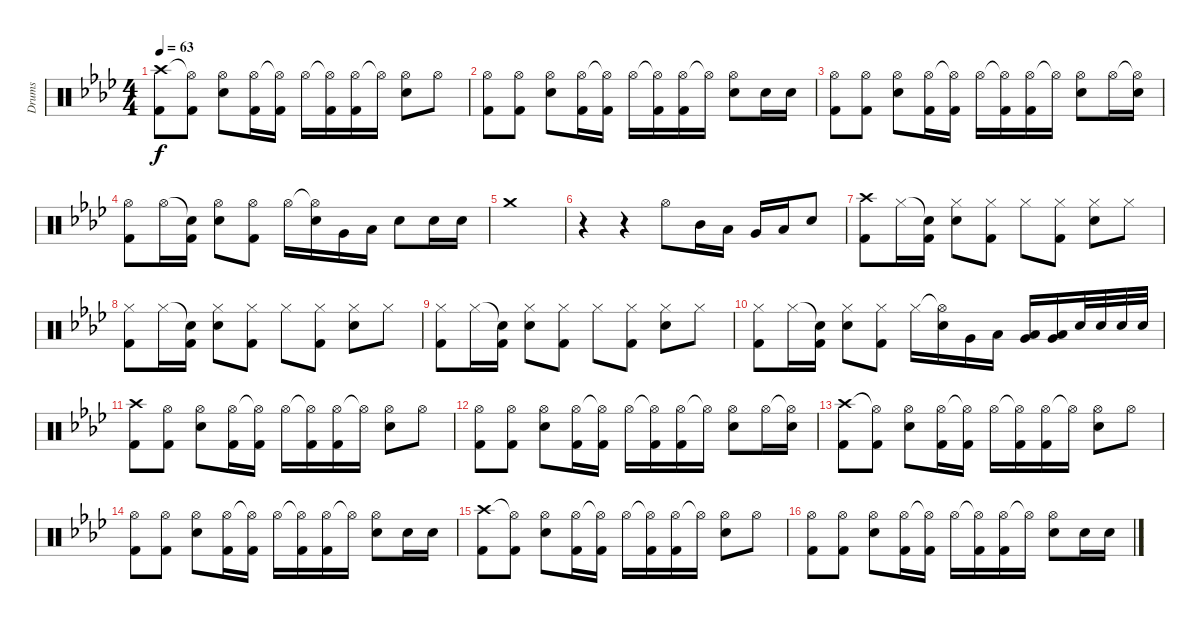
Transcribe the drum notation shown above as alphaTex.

\track ("Drums" "Drums") {instrument percussion}
\staff {score}
\articulation defaults
\ts (4 4)
\tempo 63
\clef neutral
\ks ab
("Crash high (hit)" "Kick (hit) 2").8{dy f} ("Hi-Hat (open)"{t} "Kick (hit) 2").8 ("Hi-Hat (open)" "Electric Snare (hit)").8 ("Hi-Hat (open)" "Kick (hit) 2").16 ("Hi-Hat (open)"{t} "Kick (hit) 2").16 "Hi-Hat (open)".16 ("Hi-Hat (open)"{t} "Kick (hit) 2").16 ("Hi-Hat (open)" "Kick (hit) 2").16 "Hi-Hat (open)"{t}.16 ("Hi-Hat (open)" "Electric Snare (hit)").8 "Hi-Hat (open)".8 |
("Hi-Hat (open)" "Kick (hit) 2").8 ("Hi-Hat (open)" "Kick (hit) 2").8 ("Hi-Hat (open)" "Electric Snare (hit)").8 ("Hi-Hat (open)" "Kick (hit) 2").16 ("Hi-Hat (open)"{t} "Kick (hit) 2").16 "Hi-Hat (open)".16 ("Hi-Hat (open)"{t} "Kick (hit) 2").16 ("Hi-Hat (open)" "Kick (hit) 2").16 "Hi-Hat (open)"{t}.16 ("Hi-Hat (open)" "Electric Snare (hit)").8 "Electric Snare (hit)".16 "Electric Snare (hit)".16 |
("Hi-Hat (open)" "Kick (hit) 2").8 ("Hi-Hat (open)" "Kick (hit) 2").8 ("Hi-Hat (open)" "Electric Snare (hit)").8 ("Hi-Hat (open)" "Kick (hit) 2").16 ("Hi-Hat (open)"{t} "Kick (hit) 2").16 "Hi-Hat (open)".16 ("Hi-Hat (open)"{t} "Kick (hit) 2").16 ("Hi-Hat (open)" "Kick (hit) 2").16 "Hi-Hat (open)"{t}.16 ("Hi-Hat (open)" "Electric Snare (hit)").8 "Hi-Hat (open)".16 ("Hi-Hat (open)"{t} "Electric Snare (hit)").16 |
("Hi-Hat (open)" "Kick (hit) 2").8 "Hi-Hat (open)".16 ("Snare (hit)"{t} "Kick (hit) 2").16 ("Hi-Hat (open)" "Electric Snare (hit)").8 ("Hi-Hat (open)" "Kick (hit) 2").8 "Hi-Hat (open)".16 ("Hi-Hat (open)"{t} "Electric Snare (hit)").16 "Very Low Tom (hit)".16 "Low Floor Tom (hit)".16 "Electric Snare (hit)".8 "Electric Snare (hit)".16 "Electric Snare (hit)".16 |
"Crash medium (hit)".1 |
r.4 r.4 "Hi-Hat (open)".8 "Mid Tom (hit)".16 "Low Tom (hit)".16 "Very Low Tom (hit)".16 "Low Floor Tom (hit)".16 "Electric Snare (hit)".8 |
("Crash high (hit)" "Kick (hit) 2").8 "Hi-Hat (closed)".16 ("Snare (hit)"{t} "Kick (hit) 2").16 ("Hi-Hat (closed)" "Electric Snare (hit)").8 ("Hi-Hat (closed)" "Kick (hit) 2").8 "Hi-Hat (closed)".8 ("Hi-Hat (closed)" "Kick (hit) 2").8 ("Hi-Hat (closed)" "Electric Snare (hit)").8 "Hi-Hat (closed)".8 |
("Hi-Hat (closed)" "Kick (hit) 2").8 "Hi-Hat (closed)".16 ("Snare (hit)"{t} "Kick (hit) 2").16 ("Hi-Hat (closed)" "Electric Snare (hit)").8 ("Hi-Hat (closed)" "Kick (hit) 2").8 "Hi-Hat (closed)".8 ("Hi-Hat (closed)" "Kick (hit) 2").8 ("Hi-Hat (closed)" "Electric Snare (hit)").8 "Hi-Hat (closed)".8 |
("Hi-Hat (closed)" "Kick (hit) 2").8 "Hi-Hat (closed)".16 ("Snare (hit)"{t} "Kick (hit) 2").16 ("Hi-Hat (closed)" "Electric Snare (hit)").8 ("Hi-Hat (closed)" "Kick (hit) 2").8 "Hi-Hat (closed)".8 ("Hi-Hat (closed)" "Kick (hit) 2").8 ("Hi-Hat (closed)" "Electric Snare (hit)").8 "Hi-Hat (closed)".8 |
("Hi-Hat (closed)" "Kick (hit) 2").8 "Hi-Hat (closed)".16 ("Snare (hit)"{t} "Kick (hit) 2").16 ("Hi-Hat (closed)" "Electric Snare (hit)").8 ("Hi-Hat (closed)" "Kick (hit) 2").8 "Hi-Hat (closed)".16 ("Hi-Hat (open)"{t} "Electric Snare (hit)").16 "Very Low Tom (hit)".16 "Low Floor Tom (hit)".16 ("Low Floor Tom (hit)" "Very Low Tom (hit)").16 ("Low Floor Tom (hit)" "Very Low Tom (hit)").16 "Electric Snare (hit)".32 "Electric Snare (hit)".32 "Electric Snare (hit)".32 "Electric Snare (hit)".32 |
("Crash high (hit)" "Kick (hit) 2").8 ("Hi-Hat (open)" "Kick (hit) 2").8 ("Hi-Hat (open)" "Electric Snare (hit)").8 ("Hi-Hat (open)" "Kick (hit) 2").16 ("Hi-Hat (open)"{t} "Kick (hit) 2").16 "Hi-Hat (open)".16 ("Hi-Hat (open)"{t} "Kick (hit) 2").16 ("Hi-Hat (open)" "Kick (hit) 2").16 "Hi-Hat (open)"{t}.16 ("Hi-Hat (open)" "Electric Snare (hit)").8 "Hi-Hat (open)".8 |
("Hi-Hat (open)" "Kick (hit) 2").8 ("Hi-Hat (open)" "Kick (hit) 2").8 ("Hi-Hat (open)" "Electric Snare (hit)").8 ("Hi-Hat (open)" "Kick (hit) 2").16 ("Hi-Hat (open)"{t} "Kick (hit) 2").16 "Hi-Hat (open)".16 ("Hi-Hat (open)"{t} "Kick (hit) 2").16 ("Hi-Hat (open)" "Kick (hit) 2").16 "Hi-Hat (open)"{t}.16 ("Hi-Hat (open)" "Electric Snare (hit)").8 "Hi-Hat (open)".16 ("Hi-Hat (open)"{t} "Electric Snare (hit)").16 |
("Crash high (hit)" "Kick (hit) 2").8 ("Hi-Hat (open)"{t} "Kick (hit) 2").8 ("Hi-Hat (open)" "Electric Snare (hit)").8 ("Hi-Hat (open)" "Kick (hit) 2").16 ("Hi-Hat (open)"{t} "Kick (hit) 2").16 "Hi-Hat (open)".16 ("Hi-Hat (open)"{t} "Kick (hit) 2").16 ("Hi-Hat (open)" "Kick (hit) 2").16 "Hi-Hat (open)"{t}.16 ("Hi-Hat (open)" "Electric Snare (hit)").8 "Hi-Hat (open)".8 |
("Hi-Hat (open)" "Kick (hit) 2").8 ("Hi-Hat (open)" "Kick (hit) 2").8 ("Hi-Hat (open)" "Electric Snare (hit)").8 ("Hi-Hat (open)" "Kick (hit) 2").16 ("Hi-Hat (open)"{t} "Kick (hit) 2").16 "Hi-Hat (open)".16 ("Hi-Hat (open)"{t} "Kick (hit) 2").16 ("Hi-Hat (open)" "Kick (hit) 2").16 "Hi-Hat (open)"{t}.16 ("Hi-Hat (open)" "Electric Snare (hit)").8 "Electric Snare (hit)".16 "Electric Snare (hit)".16 |
("Crash high (hit)" "Kick (hit) 2").8 ("Hi-Hat (open)"{t} "Kick (hit) 2").8 ("Hi-Hat (open)" "Electric Snare (hit)").8 ("Hi-Hat (open)" "Kick (hit) 2").16 ("Hi-Hat (open)"{t} "Kick (hit) 2").16 "Hi-Hat (open)".16 ("Hi-Hat (open)"{t} "Kick (hit) 2").16 ("Hi-Hat (open)" "Kick (hit) 2").16 "Hi-Hat (open)"{t}.16 ("Hi-Hat (open)" "Electric Snare (hit)").8 "Hi-Hat (open)".8 |
("Hi-Hat (open)" "Kick (hit) 2").8 ("Hi-Hat (open)" "Kick (hit) 2").8 ("Hi-Hat (open)" "Electric Snare (hit)").8 ("Hi-Hat (open)" "Kick (hit) 2").16 ("Hi-Hat (open)"{t} "Kick (hit) 2").16 "Hi-Hat (open)".16 ("Hi-Hat (open)"{t} "Kick (hit) 2").16 ("Hi-Hat (open)" "Kick (hit) 2").16 "Hi-Hat (open)"{t}.16 ("Hi-Hat (open)" "Electric Snare (hit)").8 "Electric Snare (hit)".16 "Electric Snare (hit)".16
